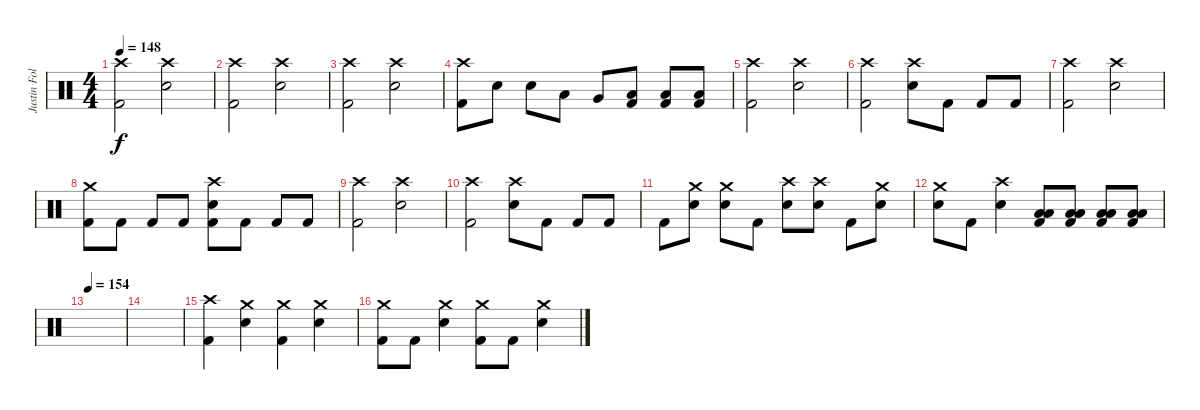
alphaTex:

\track ("Justin Foley" "Justin Fol") {instrument percussion}
\staff {score}
\articulation defaults
\ts (4 4)
\tempo 148
\clef neutral
\ks c
("Crash high (hit)" "Kick (hit) 2").2{dy f} ("Crash high (hit)" "Electric Snare (hit)").2 |
("Crash high (hit)" "Kick (hit) 2").2 ("Crash high (hit)" "Electric Snare (hit)").2 |
("Crash high (hit)" "Kick (hit) 2").2 ("Crash high (hit)" "Electric Snare (hit)").2 |
("Crash high (hit)" "Kick (hit) 2").8 "Electric Snare (hit)".8 "Electric Snare (hit)".8 "Low Tom (hit)".8 "Very Low Tom (hit)".8 ("Low Floor Tom (hit)" "Kick (hit) 2").8 ("Low Floor Tom (hit)" "Kick (hit) 2").8 ("Low Floor Tom (hit)" "Kick (hit) 2").8 |
("Crash high (hit)" "Kick (hit) 2").2 ("Crash high (hit)" "Electric Snare (hit)").2 |
("Crash high (hit)" "Kick (hit) 2").2 ("Crash high (hit)" "Electric Snare (hit)").8 "Kick (hit) 2".8 "Kick (hit) 2".8 "Kick (hit) 2".8 |
("Crash high (hit)" "Kick (hit) 2").2 ("Crash high (hit)" "Electric Snare (hit)").2 |
("Crash medium (hit)" "Kick (hit) 2").8 "Kick (hit) 2".8 "Kick (hit) 2".8 "Kick (hit) 2".8 ("Crash high (hit)" "Electric Snare (hit)" "Kick (hit) 2").8 "Kick (hit) 2".8 "Kick (hit) 2".8 "Kick (hit) 2".8 |
("Crash high (hit)" "Kick (hit) 2").2 ("Crash high (hit)" "Electric Snare (hit)").2 |
("Crash high (hit)" "Kick (hit) 2").2 ("Crash high (hit)" "Electric Snare (hit)").8 "Kick (hit) 2".8 "Kick (hit) 2".8 "Kick (hit) 2".8 |
"Kick (hit) 2".8 ("Crash medium (hit)" "Electric Snare (hit)").8 ("Crash medium (hit)" "Electric Snare (hit)").8 "Kick (hit) 2".8 ("Crash high (hit)" "Electric Snare (hit)").8 ("Crash high (hit)" "Electric Snare (hit)").8 "Kick (hit) 2".8 ("Crash medium (hit)" "Electric Snare (hit)").8 |
("Crash medium (hit)" "Electric Snare (hit)").8 "Kick (hit) 2".8 ("Crash high (hit)" "Electric Snare (hit)").4 ("Low Tom (hit)" "Low Floor Tom (hit)" "Kick (hit) 2").8 ("Low Tom (hit)" "Low Floor Tom (hit)" "Kick (hit) 2").8 ("Low Tom (hit)" "Low Floor Tom (hit)" "Kick (hit) 2").8 ("Low Tom (hit)" "Low Floor Tom (hit)" "Kick (hit) 2").8 |
\tempo 154
|
|
("Crash high (hit)" "Kick (hit) 2").4 ("Crash medium (hit)" "Electric Snare (hit)").4 ("Crash medium (hit)" "Kick (hit) 2").4 ("Crash medium (hit)" "Electric Snare (hit)").4 |
("Crash medium (hit)" "Kick (hit) 2").8 "Kick (hit) 2".8 ("Crash medium (hit)" "Electric Snare (hit)").4 ("Crash medium (hit)" "Kick (hit) 2").8 "Kick (hit) 2".8 ("Crash medium (hit)" "Electric Snare (hit)").4
